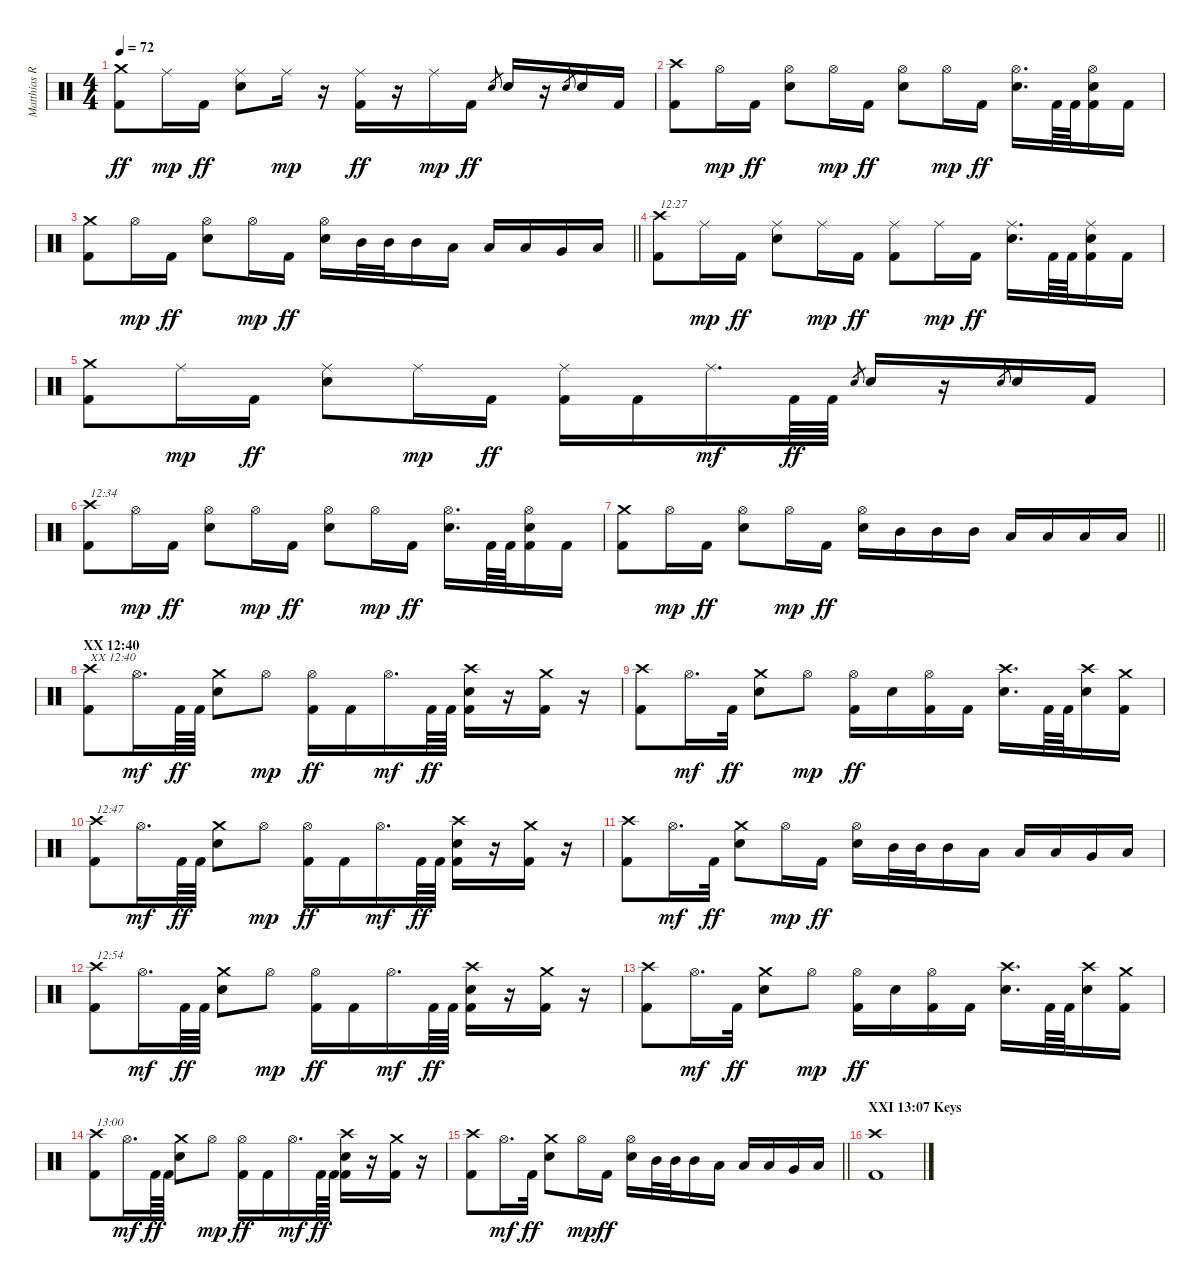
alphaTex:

\track ("Matthias R." "Matthias R") {instrument percussion}
\staff {score}
\articulation defaults
\ts (4 4)
\tempo 72
\clef neutral
\ks c
("Crash medium (hit)" "Kick (hit) 2").8{dy ff} "Ride (middle)".16{dy mp} "Kick (hit) 2".16{dy ff} ("Ride (middle)" "Electric Snare (hit)").8 "Ride (middle)".16{dy mp} r.16 ("Ride (middle)" "Kick (hit) 2").16{dy ff} r.16 "Ride (middle)".16{dy mp} "Kick (hit) 2".16{dy ff} "Electric Snare (hit)".8{gr} "Electric Snare (hit)".16 r.16 "Electric Snare (hit)".8{gr} "Electric Snare (hit)".16 "Kick (hit) 2".16 |
("Crash high (hit)" "Kick (hit) 2").8 "Hi-Hat (open)".16{dy mp} "Kick (hit) 2".16{dy ff} ("Hi-Hat (open)" "Electric Snare (hit)").8 "Hi-Hat (open)".16{dy mp} "Kick (hit) 2".16{dy ff} ("Hi-Hat (open)" "Electric Snare (hit)").8 "Hi-Hat (open)".16{dy mp} "Kick (hit) 2".16{dy ff} ("Hi-Hat (open)" "Electric Snare (hit)").16{d} "Kick (hit) 2".64 "Kick (hit) 2".64 ("Hi-Hat (open)" "Electric Snare (hit)" "Kick (hit) 2").16 "Kick (hit) 2".16 |
\barLineRight lightlight
("Crash medium (hit)" "Kick (hit) 2").8 "Hi-Hat (open)".16{dy mp} "Kick (hit) 2".16{dy ff} ("Hi-Hat (open)" "Electric Snare (hit)").8 "Hi-Hat (open)".16{dy mp} "Kick (hit) 2".16{dy ff} ("Hi-Hat (open)" "Electric Snare (hit)").16 "Mid Tom (hit)".32 "Mid Tom (hit)".32 "Mid Tom (hit)".16 "Low Tom (hit)".16 "Low Tom (hit)".16 "Low Tom (hit)".16 "Very Low Tom (hit)".16 "Low Tom (hit)".16 |
("Crash high (hit)" "Kick (hit) 2").8{txt "12:27"} "Ride (middle)".16{dy mp} "Kick (hit) 2".16{dy ff} ("Ride (middle)" "Electric Snare (hit)").8 "Ride (middle)".16{dy mp} "Kick (hit) 2".16{dy ff} ("Ride (middle)" "Kick (hit) 2").8 "Ride (middle)".16{dy mp} "Kick (hit) 2".16{dy ff} ("Ride (middle)" "Electric Snare (hit)").16{d} "Kick (hit) 2".64 "Kick (hit) 2".64 ("Ride (middle)" "Electric Snare (hit)" "Kick (hit) 2").16 "Kick (hit) 2".16 |
("Crash medium (hit)" "Kick (hit) 2").8 "Ride (middle)".16{dy mp} "Kick (hit) 2".16{dy ff} ("Ride (middle)" "Electric Snare (hit)").8 "Ride (middle)".16{dy mp} "Kick (hit) 2".16{dy ff} ("Ride (middle)" "Kick (hit) 2").16 "Kick (hit) 2".16 "Ride (middle)".16{d dy mf} "Kick (hit) 2".64{dy ff} "Kick (hit) 2".64 "Electric Snare (hit)".8{gr} "Electric Snare (hit)".16 r.16 "Electric Snare (hit)".8{gr} "Electric Snare (hit)".16 "Kick (hit) 2".16 |
("Crash high (hit)" "Kick (hit) 2").8{txt "12:34"} "Hi-Hat (open)".16{dy mp} "Kick (hit) 2".16{dy ff} ("Hi-Hat (open)" "Electric Snare (hit)").8 "Hi-Hat (open)".16{dy mp} "Kick (hit) 2".16{dy ff} ("Hi-Hat (open)" "Electric Snare (hit)").8 "Hi-Hat (open)".16{dy mp} "Kick (hit) 2".16{dy ff} ("Hi-Hat (open)" "Electric Snare (hit)").16{d} "Kick (hit) 2".64 "Kick (hit) 2".64 ("Hi-Hat (open)" "Electric Snare (hit)" "Kick (hit) 2").16 "Kick (hit) 2".16 |
\barLineRight lightlight
("Crash medium (hit)" "Kick (hit) 2").8 "Hi-Hat (open)".16{dy mp} "Kick (hit) 2".16{dy ff} ("Hi-Hat (open)" "Electric Snare (hit)").8 "Hi-Hat (open)".16{dy mp} "Kick (hit) 2".16{dy ff} ("Hi-Hat (open)" "Electric Snare (hit)").16 "Mid Tom (hit)".16 "Mid Tom (hit)".16 "Mid Tom (hit)".16 "Low Tom (hit)".16 "Low Tom (hit)".16 "Low Tom (hit)".16 "Low Tom (hit)".16 |
\section ("" "XX 12:40")
("Crash high (hit)" "Kick (hit) 2").8{txt "XX 12:40"} "Hi-Hat (open)".16{d dy mf} "Kick (hit) 2".64{dy ff} "Kick (hit) 2".64 ("Crash medium (hit)" "Electric Snare (hit)").8 "Hi-Hat (open)".8{dy mp} ("Hi-Hat (open)" "Kick (hit) 2").16{dy ff} "Kick (hit) 2".16 "Hi-Hat (open)".16{d dy mf} "Kick (hit) 2".64{dy ff} "Kick (hit) 2".64 ("Crash high (hit)" "Electric Snare (hit)" "Kick (hit) 2").16 r.16 ("Crash medium (hit)" "Kick (hit) 2").16 r.16 |
("Crash high (hit)" "Kick (hit) 2").8 "Hi-Hat (open)".16{d dy mf} "Kick (hit) 2".32{dy ff} ("Crash medium (hit)" "Electric Snare (hit)").8 "Hi-Hat (open)".8{dy mp} ("Hi-Hat (open)" "Kick (hit) 2").16{dy ff} "Electric Snare (hit)".16 ("Hi-Hat (open)" "Kick (hit) 2").16 "Kick (hit) 2".16 ("Crash high (hit)" "Electric Snare (hit)").16{d} "Kick (hit) 2".64 "Kick (hit) 2".64 ("Crash high (hit)" "Electric Snare (hit)").16 ("Crash medium (hit)" "Kick (hit) 2").16 |
("Crash high (hit)" "Kick (hit) 2").8{txt "12:47"} "Hi-Hat (open)".16{d dy mf} "Kick (hit) 2".64{dy ff} "Kick (hit) 2".64 ("Crash medium (hit)" "Electric Snare (hit)").8 "Hi-Hat (open)".8{dy mp} ("Hi-Hat (open)" "Kick (hit) 2").16{dy ff} "Kick (hit) 2".16 "Hi-Hat (open)".16{d dy mf} "Kick (hit) 2".64{dy ff} "Kick (hit) 2".64 ("Crash high (hit)" "Electric Snare (hit)" "Kick (hit) 2").16 r.16 ("Crash medium (hit)" "Kick (hit) 2").16 r.16 |
("Crash high (hit)" "Kick (hit) 2").8 "Hi-Hat (open)".16{d dy mf} "Kick (hit) 2".32{dy ff} ("Crash medium (hit)" "Electric Snare (hit)").8 "Hi-Hat (open)".16{dy mp} "Kick (hit) 2".16{dy ff} ("Hi-Hat (open)" "Electric Snare (hit)").16 "Mid Tom (hit)".32 "Mid Tom (hit)".32 "Mid Tom (hit)".16 "Low Tom (hit)".16 "Low Tom (hit)".16 "Low Tom (hit)".16 "Very Low Tom (hit)".16 "Low Tom (hit)".16 |
("Crash high (hit)" "Kick (hit) 2").8{txt "12:54"} "Hi-Hat (open)".16{d dy mf} "Kick (hit) 2".64{dy ff} "Kick (hit) 2".64 ("Crash medium (hit)" "Electric Snare (hit)").8 "Hi-Hat (open)".8{dy mp} ("Hi-Hat (open)" "Kick (hit) 2").16{dy ff} "Kick (hit) 2".16 "Hi-Hat (open)".16{d dy mf} "Kick (hit) 2".64{dy ff} "Kick (hit) 2".64 ("Crash high (hit)" "Electric Snare (hit)" "Kick (hit) 2").16 r.16 ("Crash medium (hit)" "Kick (hit) 2").16 r.16 |
("Crash high (hit)" "Kick (hit) 2").8 "Hi-Hat (open)".16{d dy mf} "Kick (hit) 2".32{dy ff} ("Crash medium (hit)" "Electric Snare (hit)").8 "Hi-Hat (open)".8{dy mp} ("Hi-Hat (open)" "Kick (hit) 2").16{dy ff} "Electric Snare (hit)".16 ("Hi-Hat (open)" "Kick (hit) 2").16 "Kick (hit) 2".16 ("Crash high (hit)" "Electric Snare (hit)").16{d} "Kick (hit) 2".64 "Kick (hit) 2".64 ("Crash high (hit)" "Electric Snare (hit)").16 ("Crash medium (hit)" "Kick (hit) 2").16 |
("Crash high (hit)" "Kick (hit) 2").8{txt "13:00"} "Hi-Hat (open)".16{d dy mf} "Kick (hit) 2".64{dy ff} "Kick (hit) 2".64 ("Crash medium (hit)" "Electric Snare (hit)").8 "Hi-Hat (open)".8{dy mp} ("Hi-Hat (open)" "Kick (hit) 2").16{dy ff} "Kick (hit) 2".16 "Hi-Hat (open)".16{d dy mf} "Kick (hit) 2".64{dy ff} "Kick (hit) 2".64 ("Crash high (hit)" "Electric Snare (hit)" "Kick (hit) 2").16 r.16 ("Crash medium (hit)" "Kick (hit) 2").16 r.16 |
\barLineRight lightlight
("Crash high (hit)" "Kick (hit) 2").8 "Hi-Hat (open)".16{d dy mf} "Kick (hit) 2".32{dy ff} ("Crash medium (hit)" "Electric Snare (hit)").8 "Hi-Hat (open)".16{dy mp} "Kick (hit) 2".16{dy ff} ("Hi-Hat (open)" "Electric Snare (hit)").16 "Mid Tom (hit)".32 "Mid Tom (hit)".32 "Mid Tom (hit)".16 "Low Tom (hit)".16 "Low Tom (hit)".16 "Low Tom (hit)".16 "Very Low Tom (hit)".16 "Low Tom (hit)".16 |
\section ("" "XXI 13:07 Keys")
("Crash high (hit)" "Kick (hit) 2").1
